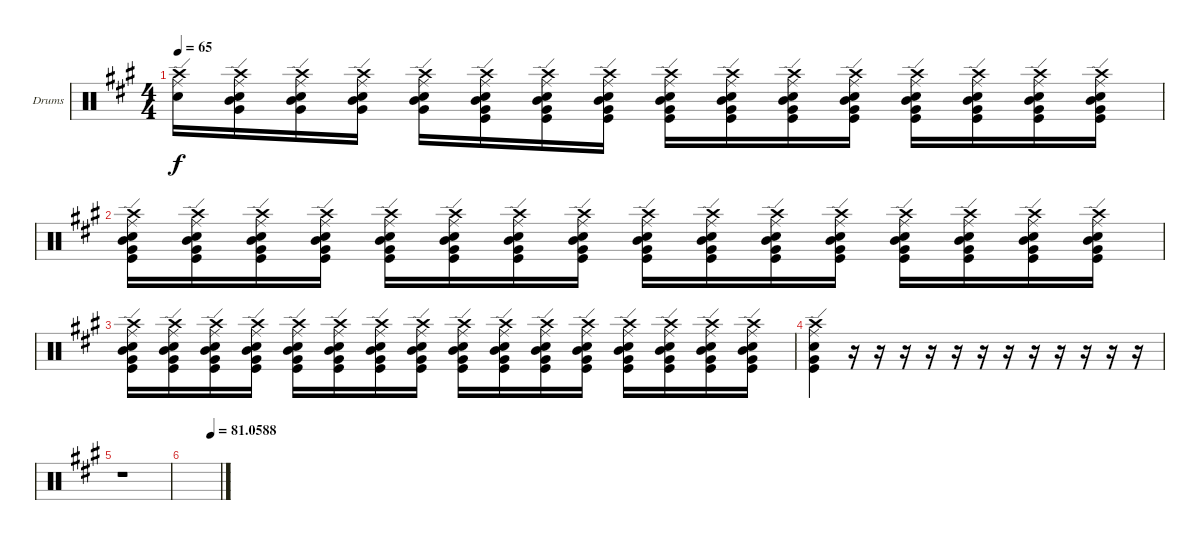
\bracketExtendMode groupsimilarinstruments
\firstSystemTrackNameOrientation horizontal
\otherSystemsTrackNameOrientation horizontal
\track ("Drumkit" "Drums") {instrument percussion}
\staff {score}
\articulation defaults
\ts (4 4)
\tempo 65
\clef neutral
\ks a
("Ride (edge)" "Crash high (hit)" "Snare (hit) 2").16{dy f} ("Very Low Tom (hit)" "Ride (edge)" "Crash high (hit)" "Mid Tom (hit)" "Snare (hit) 2").16 ("Very Low Tom (hit)" "Ride (edge)" "Crash high (hit)" "Mid Tom (hit)" "Snare (hit) 2").16 ("Very Low Tom (hit)" "Ride (edge)" "Crash high (hit)" "Mid Tom (hit)" "Snare (hit) 2").16 ("Very Low Tom (hit)" "Ride (edge)" "Crash high (hit)" "Mid Tom (hit)" "Snare (hit) 2").16 ("Very Low Tom (hit)" "Ride (edge)" "Crash high (hit)" "Mid Tom (hit)" "Snare (hit) 2" "Kick (hit)").16 ("Very Low Tom (hit)" "Ride (edge)" "Crash high (hit)" "Mid Tom (hit)" "Snare (hit) 2" "Kick (hit)").16 ("Very Low Tom (hit)" "Ride (edge)" "Crash high (hit)" "Mid Tom (hit)" "Snare (hit) 2" "Kick (hit)").16 ("Very Low Tom (hit)" "Ride (edge)" "Crash high (hit)" "Mid Tom (hit)" "Snare (hit) 2" "Kick (hit)").16 ("Very Low Tom (hit)" "Ride (edge)" "Crash high (hit)" "Mid Tom (hit)" "Snare (hit) 2" "Kick (hit)").16 ("Very Low Tom (hit)" "Ride (edge)" "Crash high (hit)" "Mid Tom (hit)" "Snare (hit) 2" "Kick (hit)").16 ("Very Low Tom (hit)" "Ride (edge)" "Crash high (hit)" "Mid Tom (hit)" "Snare (hit) 2" "Kick (hit)").16 ("Very Low Tom (hit)" "Ride (edge)" "Crash high (hit)" "Mid Tom (hit)" "Snare (hit) 2" "Kick (hit)").16 ("Very Low Tom (hit)" "Ride (edge)" "Crash high (hit)" "Mid Tom (hit)" "Snare (hit) 2" "Kick (hit)").16 ("Very Low Tom (hit)" "Ride (edge)" "Crash high (hit)" "Mid Tom (hit)" "Snare (hit) 2" "Kick (hit)").16 ("Very Low Tom (hit)" "Ride (edge)" "Crash high (hit)" "Mid Tom (hit)" "Snare (hit) 2" "Kick (hit)").16 |
("Very Low Tom (hit)" "Ride (edge)" "Crash high (hit)" "Mid Tom (hit)" "Snare (hit) 2" "Kick (hit)").16 ("Very Low Tom (hit)" "Ride (edge)" "Crash high (hit)" "Mid Tom (hit)" "Snare (hit) 2" "Kick (hit)").16 ("Very Low Tom (hit)" "Ride (edge)" "Crash high (hit)" "Mid Tom (hit)" "Snare (hit) 2" "Kick (hit)").16 ("Very Low Tom (hit)" "Ride (edge)" "Crash high (hit)" "Mid Tom (hit)" "Snare (hit) 2" "Kick (hit)").16 ("Very Low Tom (hit)" "Ride (edge)" "Crash high (hit)" "Mid Tom (hit)" "Snare (hit) 2" "Kick (hit)").16 ("Very Low Tom (hit)" "Ride (edge)" "Crash high (hit)" "Mid Tom (hit)" "Snare (hit) 2" "Kick (hit)").16 ("Very Low Tom (hit)" "Ride (edge)" "Crash high (hit)" "Mid Tom (hit)" "Snare (hit) 2" "Kick (hit)").16 ("Very Low Tom (hit)" "Ride (edge)" "Crash high (hit)" "Mid Tom (hit)" "Snare (hit) 2" "Kick (hit)").16 ("Very Low Tom (hit)" "Ride (edge)" "Crash high (hit)" "Mid Tom (hit)" "Snare (hit) 2" "Kick (hit)").16 ("Very Low Tom (hit)" "Ride (edge)" "Crash high (hit)" "Mid Tom (hit)" "Snare (hit) 2" "Kick (hit)").16 ("Very Low Tom (hit)" "Ride (edge)" "Crash high (hit)" "Mid Tom (hit)" "Snare (hit) 2" "Kick (hit)").16 ("Very Low Tom (hit)" "Ride (edge)" "Crash high (hit)" "Mid Tom (hit)" "Snare (hit) 2" "Kick (hit)").16 ("Very Low Tom (hit)" "Ride (edge)" "Crash high (hit)" "Mid Tom (hit)" "Snare (hit) 2" "Kick (hit)").16 ("Very Low Tom (hit)" "Ride (edge)" "Crash high (hit)" "Mid Tom (hit)" "Snare (hit) 2" "Kick (hit)").16 ("Very Low Tom (hit)" "Ride (edge)" "Crash high (hit)" "Mid Tom (hit)" "Snare (hit) 2" "Kick (hit)").16 ("Very Low Tom (hit)" "Ride (edge)" "Crash high (hit)" "Mid Tom (hit)" "Snare (hit) 2" "Kick (hit)").16 |
("Very Low Tom (hit)" "Ride (edge)" "Crash high (hit)" "Mid Tom (hit)" "Snare (hit) 2" "Kick (hit)").16 ("Very Low Tom (hit)" "Ride (edge)" "Crash high (hit)" "Mid Tom (hit)" "Snare (hit) 2" "Kick (hit)").16 ("Very Low Tom (hit)" "Ride (edge)" "Crash high (hit)" "Mid Tom (hit)" "Snare (hit) 2" "Kick (hit)").16 ("Very Low Tom (hit)" "Ride (edge)" "Crash high (hit)" "Mid Tom (hit)" "Snare (hit) 2" "Kick (hit)").16 ("Very Low Tom (hit)" "Ride (edge)" "Crash high (hit)" "Mid Tom (hit)" "Snare (hit) 2" "Kick (hit)").16 ("Very Low Tom (hit)" "Ride (edge)" "Crash high (hit)" "Mid Tom (hit)" "Snare (hit) 2" "Kick (hit)").16 ("Very Low Tom (hit)" "Ride (edge)" "Crash high (hit)" "Mid Tom (hit)" "Snare (hit) 2" "Kick (hit)").16 ("Very Low Tom (hit)" "Ride (edge)" "Crash high (hit)" "Mid Tom (hit)" "Snare (hit) 2" "Kick (hit)").16 ("Very Low Tom (hit)" "Ride (edge)" "Crash high (hit)" "Mid Tom (hit)" "Snare (hit) 2" "Kick (hit)").16 ("Very Low Tom (hit)" "Ride (edge)" "Crash high (hit)" "Mid Tom (hit)" "Snare (hit) 2" "Kick (hit)").16 ("Very Low Tom (hit)" "Ride (edge)" "Crash high (hit)" "Mid Tom (hit)" "Snare (hit) 2" "Kick (hit)").16 ("Very Low Tom (hit)" "Ride (edge)" "Crash high (hit)" "Mid Tom (hit)" "Snare (hit) 2" "Kick (hit)").16 ("Very Low Tom (hit)" "Ride (edge)" "Crash high (hit)" "Mid Tom (hit)" "Snare (hit) 2" "Kick (hit)").16 ("Very Low Tom (hit)" "Ride (edge)" "Crash high (hit)" "Mid Tom (hit)" "Snare (hit) 2" "Kick (hit)").16 ("Very Low Tom (hit)" "Ride (edge)" "Crash high (hit)" "Mid Tom (hit)" "Snare (hit) 2" "Kick (hit)").16 ("Very Low Tom (hit)" "Ride (edge)" "Crash high (hit)" "Mid Tom (hit)" "Snare (hit) 2" "Kick (hit)").16 |
("Very Low Tom (hit)" "Ride (edge)" "Crash high (hit)" "Snare (hit) 2" "Kick (hit)").4 r.16 r.16 r.16 r.16 r.16 r.16 r.16 r.16 r.16 r.16 r.16 r.16 |
r.1 |
\tempo (81.0588 0.75)
